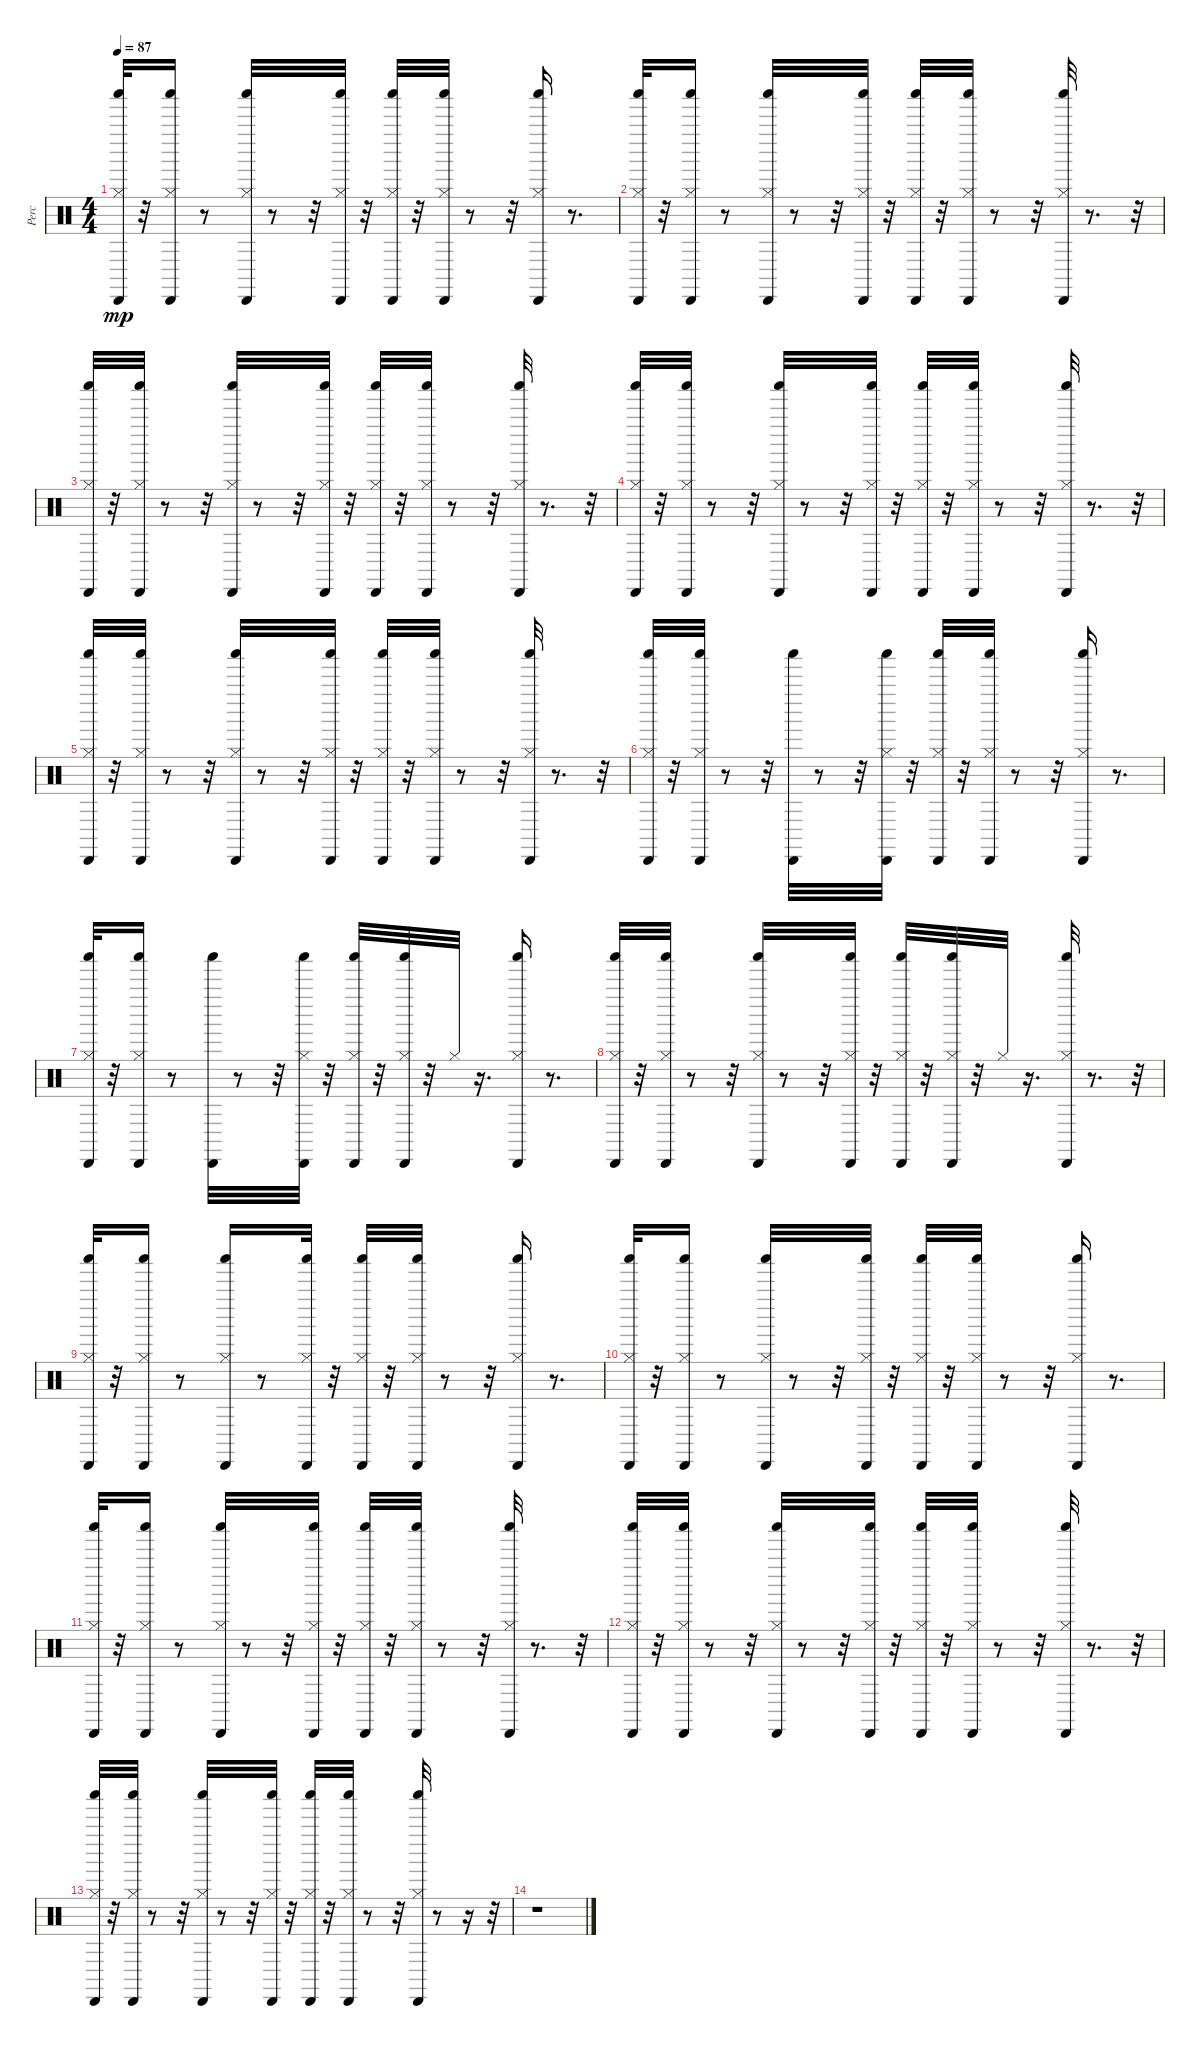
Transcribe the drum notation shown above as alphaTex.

\track ("Perc" "Perc") {instrument percussion}
\staff {score}
\articulation defaults
\ts (4 4)
\tempo 87
\clef neutral
\ks c
("Cabasa (hit)" "Shaker (hit)" "Hi-Hat (closed)").32{dy mp} r.32 ("Shaker (hit)" "Cabasa (hit)" "Hi-Hat (closed)").16 r.8 ("Cabasa (hit)" "Shaker (hit)" "Hi-Hat (closed)").32 r.8 r.32 ("Cabasa (hit)" "Shaker (hit)" "Hi-Hat (closed)").32 r.32 ("Shaker (hit)" "Cabasa (hit)" "Hi-Hat (closed)").32 r.32 ("Shaker (hit)" "Cabasa (hit)" "Hi-Hat (closed)").32 r.8 r.32 ("Shaker (hit)" "Cabasa (hit)" "Hi-Hat (closed)").16 r.8{d} |
("Cabasa (hit)" "Shaker (hit)" "Hi-Hat (closed)").32 r.32 ("Shaker (hit)" "Cabasa (hit)" "Hi-Hat (closed)").16 r.8 ("Shaker (hit)" "Cabasa (hit)" "Hi-Hat (closed)").32 r.8 r.32 ("Shaker (hit)" "Cabasa (hit)" "Hi-Hat (closed)").32 r.32 ("Shaker (hit)" "Cabasa (hit)" "Hi-Hat (closed)").32 r.32 ("Shaker (hit)" "Cabasa (hit)" "Hi-Hat (closed)").32 r.8 r.32 ("Shaker (hit)" "Cabasa (hit)" "Hi-Hat (closed)").32 r.8{d} r.32 |
("Hi-Hat (closed)" "Cabasa (hit)" "Shaker (hit)").32 r.32 ("Hi-Hat (closed)" "Shaker (hit)" "Cabasa (hit)").32 r.8 r.32 ("Hi-Hat (closed)" "Cabasa (hit)" "Shaker (hit)").32 r.8 r.32 ("Hi-Hat (closed)" "Cabasa (hit)" "Shaker (hit)").32 r.32 ("Hi-Hat (closed)" "Shaker (hit)" "Cabasa (hit)").32 r.32 ("Hi-Hat (closed)" "Shaker (hit)" "Cabasa (hit)").32 r.8 r.32 ("Hi-Hat (closed)" "Shaker (hit)" "Cabasa (hit)").32 r.8{d} r.32 |
("Hi-Hat (closed)" "Cabasa (hit)" "Shaker (hit)").32 r.32 ("Hi-Hat (closed)" "Shaker (hit)" "Cabasa (hit)").32 r.8 r.32 ("Hi-Hat (closed)" "Shaker (hit)" "Cabasa (hit)").32 r.8 r.32 ("Hi-Hat (closed)" "Shaker (hit)" "Cabasa (hit)").32 r.32 ("Hi-Hat (closed)" "Shaker (hit)" "Cabasa (hit)").32 r.32 ("Hi-Hat (closed)" "Shaker (hit)" "Cabasa (hit)").32 r.8 r.32 ("Hi-Hat (closed)" "Shaker (hit)" "Cabasa (hit)").32 r.8{d} r.32 |
("Hi-Hat (closed)" "Cabasa (hit)" "Shaker (hit)").32 r.32 ("Hi-Hat (closed)" "Shaker (hit)" "Cabasa (hit)").32 r.8 r.32 ("Hi-Hat (closed)" "Cabasa (hit)" "Shaker (hit)").32 r.8 r.32 ("Hi-Hat (closed)" "Cabasa (hit)" "Shaker (hit)").32 r.32 ("Hi-Hat (closed)" "Shaker (hit)" "Cabasa (hit)").32 r.32 ("Hi-Hat (closed)" "Shaker (hit)" "Cabasa (hit)").32 r.8 r.32 ("Hi-Hat (closed)" "Shaker (hit)" "Cabasa (hit)").32 r.8{d} r.32 |
("Cabasa (hit)" "Shaker (hit)" "Hi-Hat (closed)").32 r.32 ("Shaker (hit)" "Cabasa (hit)" "Hi-Hat (closed)").32 r.8 r.32 ("Shaker (hit)" "Cabasa (hit)").32 r.8 r.32 ("Shaker (hit)" "Cabasa (hit)" "Hi-Hat (closed)").32 r.32 ("Shaker (hit)" "Cabasa (hit)" "Hi-Hat (closed)").32 r.32 ("Shaker (hit)" "Cabasa (hit)" "Hi-Hat (closed)").32 r.8 r.32 ("Shaker (hit)" "Cabasa (hit)" "Hi-Hat (closed)").16 r.8{d} |
("Hi-Hat (closed)" "Cabasa (hit)" "Shaker (hit)").32 r.32 ("Hi-Hat (closed)" "Shaker (hit)" "Cabasa (hit)").16 r.8 ("Cabasa (hit)" "Shaker (hit)").32 r.8 r.32 ("Hi-Hat (closed)" "Cabasa (hit)" "Shaker (hit)").32 r.32 ("Hi-Hat (closed)" "Shaker (hit)" "Cabasa (hit)").32 r.32 ("Hi-Hat (closed)" "Shaker (hit)" "Cabasa (hit)").32 r.32 "Hi-Hat (closed)".32 r.16{d} ("Hi-Hat (closed)" "Shaker (hit)" "Cabasa (hit)").16 r.8{d} |
("Hi-Hat (closed)" "Cabasa (hit)" "Shaker (hit)").32 r.32 ("Hi-Hat (closed)" "Shaker (hit)" "Cabasa (hit)").32 r.8 r.32 ("Hi-Hat (closed)" "Shaker (hit)" "Cabasa (hit)").32 r.8 r.32 ("Hi-Hat (closed)" "Shaker (hit)" "Cabasa (hit)").32 r.32 ("Hi-Hat (closed)" "Shaker (hit)" "Cabasa (hit)").32 r.32 ("Hi-Hat (closed)" "Shaker (hit)" "Cabasa (hit)").32 r.32 "Hi-Hat (closed)".32 r.16{d} ("Hi-Hat (closed)" "Shaker (hit)" "Cabasa (hit)").32 r.8{d} r.32 |
("Hi-Hat (closed)" "Cabasa (hit)" "Shaker (hit)").32 r.32 ("Hi-Hat (closed)" "Shaker (hit)" "Cabasa (hit)").16 r.8 ("Hi-Hat (closed)" "Cabasa (hit)" "Shaker (hit)").16 r.8 ("Hi-Hat (closed)" "Cabasa (hit)" "Shaker (hit)").32 r.32 ("Hi-Hat (closed)" "Shaker (hit)" "Cabasa (hit)").32 r.32 ("Hi-Hat (closed)" "Shaker (hit)" "Cabasa (hit)").32 r.8 r.32 ("Hi-Hat (closed)" "Shaker (hit)" "Cabasa (hit)").16 r.8{d} |
("Cabasa (hit)" "Shaker (hit)" "Hi-Hat (closed)").32 r.32 ("Shaker (hit)" "Cabasa (hit)" "Hi-Hat (closed)").16 r.8 ("Shaker (hit)" "Cabasa (hit)" "Hi-Hat (closed)").32 r.8 r.32 ("Shaker (hit)" "Cabasa (hit)" "Hi-Hat (closed)").32 r.32 ("Shaker (hit)" "Cabasa (hit)" "Hi-Hat (closed)").32 r.32 ("Shaker (hit)" "Cabasa (hit)" "Hi-Hat (closed)").32 r.8 r.32 ("Shaker (hit)" "Cabasa (hit)" "Hi-Hat (closed)").16 r.8{d} |
("Hi-Hat (closed)" "Cabasa (hit)" "Shaker (hit)").32 r.32 ("Hi-Hat (closed)" "Shaker (hit)" "Cabasa (hit)").16 r.8 ("Hi-Hat (closed)" "Cabasa (hit)" "Shaker (hit)").32 r.8 r.32 ("Hi-Hat (closed)" "Cabasa (hit)" "Shaker (hit)").32 r.32 ("Hi-Hat (closed)" "Shaker (hit)" "Cabasa (hit)").32 r.32 ("Hi-Hat (closed)" "Shaker (hit)" "Cabasa (hit)").32 r.8 r.32 ("Hi-Hat (closed)" "Shaker (hit)" "Cabasa (hit)").32 r.8{d} r.32 |
("Hi-Hat (closed)" "Cabasa (hit)" "Shaker (hit)").32 r.32 ("Hi-Hat (closed)" "Shaker (hit)" "Cabasa (hit)").32 r.8 r.32 ("Hi-Hat (closed)" "Shaker (hit)" "Cabasa (hit)").32 r.8 r.32 ("Hi-Hat (closed)" "Shaker (hit)" "Cabasa (hit)").32 r.32 ("Hi-Hat (closed)" "Shaker (hit)" "Cabasa (hit)").32 r.32 ("Hi-Hat (closed)" "Shaker (hit)" "Cabasa (hit)").32 r.8 r.32 ("Hi-Hat (closed)" "Shaker (hit)" "Cabasa (hit)").32 r.8{d} r.32 |
("Hi-Hat (closed)" "Cabasa (hit)" "Shaker (hit)").32 r.32 ("Hi-Hat (closed)" "Shaker (hit)" "Cabasa (hit)").32 r.8 r.32 ("Hi-Hat (closed)" "Cabasa (hit)" "Shaker (hit)").32 r.8 r.32 ("Hi-Hat (closed)" "Cabasa (hit)" "Shaker (hit)").32 r.32 ("Hi-Hat (closed)" "Shaker (hit)" "Cabasa (hit)").32 r.32 ("Hi-Hat (closed)" "Shaker (hit)" "Cabasa (hit)").32 r.8 r.32 ("Hi-Hat (closed)" "Shaker (hit)" "Cabasa (hit)").32 r.8 r.16 r.32 |
r.1
